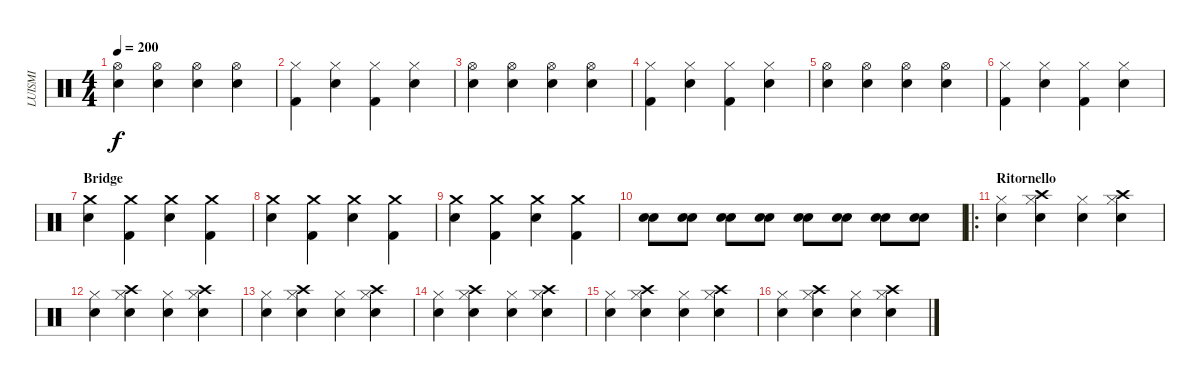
\track ("LUISMI" "LUISMI") {instrument percussion}
\staff {score}
\articulation defaults
\ts (4 4)
\tempo 200
\clef neutral
\ks c
("Snare (hit) 2" "Hi-Hat (open)").4{dy f} ("Snare (hit) 2" "Hi-Hat (open)").4 ("Snare (hit) 2" "Hi-Hat (open)").4 ("Snare (hit) 2" "Hi-Hat (open)").4 |
("Hi-Hat (closed)" "Kick (hit) 2").4 ("Hi-Hat (closed)" "Snare (hit) 2").4 ("Hi-Hat (closed)" "Kick (hit) 2").4 ("Hi-Hat (closed)" "Snare (hit) 2").4 |
("Snare (hit) 2" "Hi-Hat (open)").4 ("Snare (hit) 2" "Hi-Hat (open)").4 ("Snare (hit) 2" "Hi-Hat (open)").4 ("Snare (hit) 2" "Hi-Hat (open)").4 |
("Hi-Hat (closed)" "Kick (hit) 2").4 ("Hi-Hat (closed)" "Snare (hit) 2").4 ("Hi-Hat (closed)" "Kick (hit) 2").4 ("Hi-Hat (closed)" "Snare (hit) 2").4 |
("Snare (hit) 2" "Hi-Hat (open)").4 ("Snare (hit) 2" "Hi-Hat (open)").4 ("Snare (hit) 2" "Hi-Hat (open)").4 ("Snare (hit) 2" "Hi-Hat (open)").4 |
("Hi-Hat (closed)" "Kick (hit) 2").4 ("Hi-Hat (closed)" "Snare (hit) 2").4 ("Hi-Hat (closed)" "Kick (hit) 2").4 ("Hi-Hat (closed)" "Snare (hit) 2").4 |
\section ("" "Bridge")
("Snare (hit) 2" "Crash medium (hit)").4 ("Kick (hit) 2" "Crash medium (hit)").4 ("Snare (hit) 2" "Crash medium (hit)").4 ("Kick (hit) 2" "Crash medium (hit)").4 |
("Snare (hit) 2" "Crash medium (hit)").4 ("Kick (hit) 2" "Crash medium (hit)").4 ("Snare (hit) 2" "Crash medium (hit)").4 ("Kick (hit) 2" "Crash medium (hit)").4 |
("Snare (hit) 2" "Crash medium (hit)").4 ("Kick (hit) 2" "Crash medium (hit)").4 ("Snare (hit) 2" "Crash medium (hit)").4 ("Kick (hit) 2" "Crash medium (hit)").4 |
("Electric Snare (hit)" "Snare (hit) 2").8 ("Electric Snare (hit)" "Snare (hit) 2").8 ("Electric Snare (hit)" "Snare (hit) 2").8 ("Electric Snare (hit)" "Snare (hit) 2").8 ("Electric Snare (hit)" "Snare (hit) 2").8 ("Electric Snare (hit)" "Snare (hit) 2").8 ("Electric Snare (hit)" "Snare (hit) 2").8 ("Electric Snare (hit)" "Snare (hit) 2").8 |
\ro
\section ("" "Ritornello")
("Hi-Hat (closed)" "Snare (hit) 2").4 ("Hi-Hat (closed)" "Snare (hit) 2" "Crash high (hit)").4 ("Hi-Hat (closed)" "Snare (hit) 2").4 ("Hi-Hat (closed)" "Snare (hit) 2" "Crash high (hit)").4 |
("Hi-Hat (closed)" "Snare (hit) 2").4 ("Hi-Hat (closed)" "Snare (hit) 2" "Crash high (hit)").4 ("Hi-Hat (closed)" "Snare (hit) 2").4 ("Hi-Hat (closed)" "Snare (hit) 2" "Crash high (hit)").4 |
("Hi-Hat (closed)" "Snare (hit) 2").4 ("Hi-Hat (closed)" "Snare (hit) 2" "Crash high (hit)").4 ("Hi-Hat (closed)" "Snare (hit) 2").4 ("Hi-Hat (closed)" "Snare (hit) 2" "Crash high (hit)").4 |
("Hi-Hat (closed)" "Snare (hit) 2").4 ("Hi-Hat (closed)" "Snare (hit) 2" "Crash high (hit)").4 ("Hi-Hat (closed)" "Snare (hit) 2").4 ("Hi-Hat (closed)" "Snare (hit) 2" "Crash high (hit)").4 |
("Hi-Hat (closed)" "Snare (hit) 2").4 ("Hi-Hat (closed)" "Snare (hit) 2" "Crash high (hit)").4 ("Hi-Hat (closed)" "Snare (hit) 2").4 ("Hi-Hat (closed)" "Snare (hit) 2" "Crash high (hit)").4 |
("Hi-Hat (closed)" "Snare (hit) 2").4 ("Hi-Hat (closed)" "Snare (hit) 2" "Crash high (hit)").4 ("Hi-Hat (closed)" "Snare (hit) 2").4 ("Hi-Hat (closed)" "Snare (hit) 2" "Crash high (hit)").4
